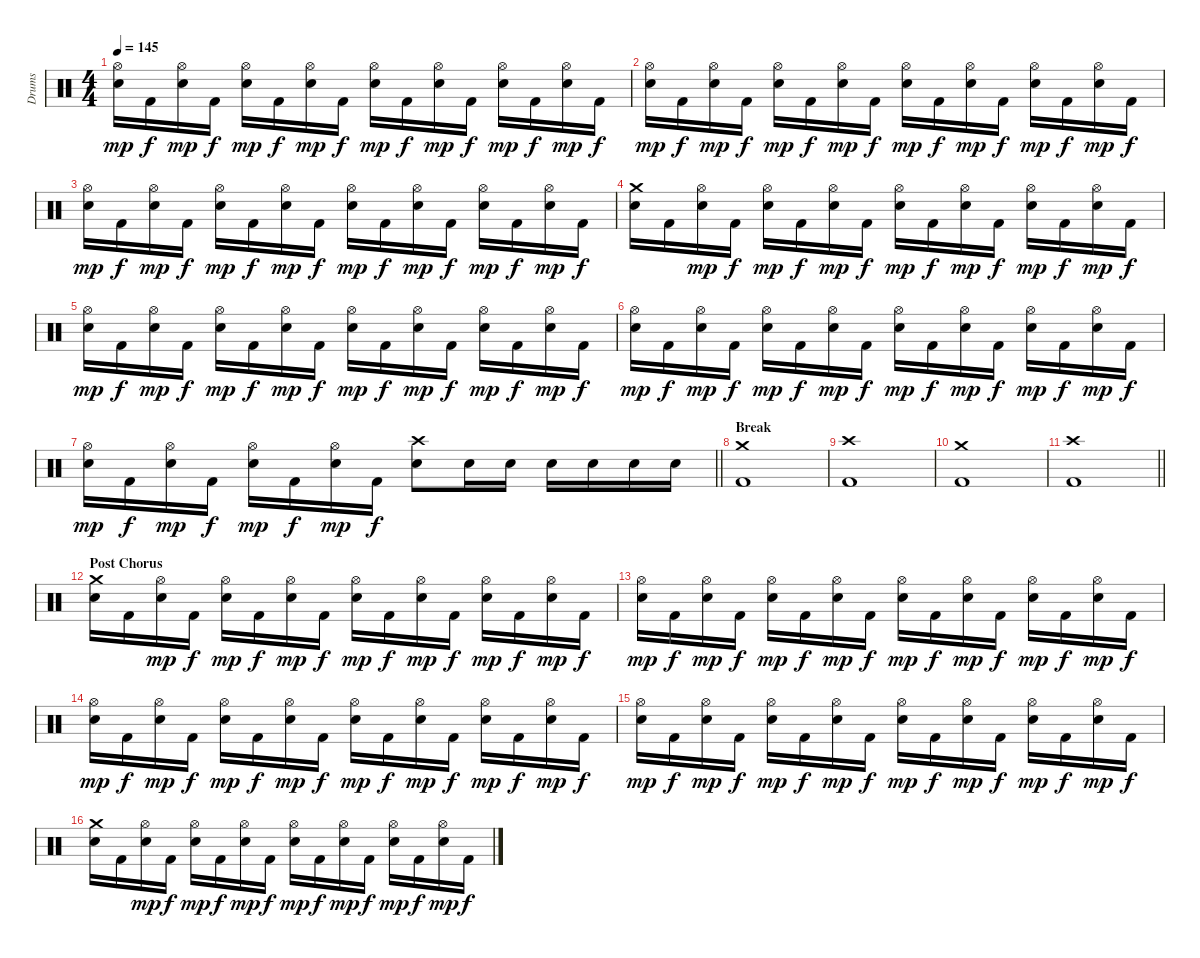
\track ("Drums" "Drums") {instrument percussion}
\staff {score}
\articulation defaults
\ts (4 4)
\tempo 145
\clef neutral
\ks c
("Hi-Hat (open)" "Snare (hit) 2").16{dy mp} "Kick (hit) 2".16{dy f} ("Hi-Hat (open)" "Snare (hit) 2").16{dy mp} "Kick (hit) 2".16{dy f} ("Hi-Hat (open)" "Snare (hit) 2").16{dy mp} "Kick (hit) 2".16{dy f} ("Hi-Hat (open)" "Snare (hit) 2").16{dy mp} "Kick (hit) 2".16{dy f} ("Hi-Hat (open)" "Snare (hit) 2").16{dy mp} "Kick (hit) 2".16{dy f} ("Hi-Hat (open)" "Snare (hit) 2").16{dy mp} "Kick (hit) 2".16{dy f} ("Hi-Hat (open)" "Snare (hit) 2").16{dy mp} "Kick (hit) 2".16{dy f} ("Hi-Hat (open)" "Snare (hit) 2").16{dy mp} "Kick (hit) 2".16{dy f} |
("Hi-Hat (open)" "Snare (hit) 2").16{dy mp} "Kick (hit) 2".16{dy f} ("Hi-Hat (open)" "Snare (hit) 2").16{dy mp} "Kick (hit) 2".16{dy f} ("Hi-Hat (open)" "Snare (hit) 2").16{dy mp} "Kick (hit) 2".16{dy f} ("Hi-Hat (open)" "Snare (hit) 2").16{dy mp} "Kick (hit) 2".16{dy f} ("Hi-Hat (open)" "Snare (hit) 2").16{dy mp} "Kick (hit) 2".16{dy f} ("Hi-Hat (open)" "Snare (hit) 2").16{dy mp} "Kick (hit) 2".16{dy f} ("Hi-Hat (open)" "Snare (hit) 2").16{dy mp} "Kick (hit) 2".16{dy f} ("Hi-Hat (open)" "Snare (hit) 2").16{dy mp} "Kick (hit) 2".16{dy f} |
("Hi-Hat (open)" "Snare (hit) 2").16{dy mp} "Kick (hit) 2".16{dy f} ("Hi-Hat (open)" "Snare (hit) 2").16{dy mp} "Kick (hit) 2".16{dy f} ("Hi-Hat (open)" "Snare (hit) 2").16{dy mp} "Kick (hit) 2".16{dy f} ("Hi-Hat (open)" "Snare (hit) 2").16{dy mp} "Kick (hit) 2".16{dy f} ("Hi-Hat (open)" "Snare (hit) 2").16{dy mp} "Kick (hit) 2".16{dy f} ("Hi-Hat (open)" "Snare (hit) 2").16{dy mp} "Kick (hit) 2".16{dy f} ("Hi-Hat (open)" "Snare (hit) 2").16{dy mp} "Kick (hit) 2".16{dy f} ("Hi-Hat (open)" "Snare (hit) 2").16{dy mp} "Kick (hit) 2".16{dy f} |
("Crash medium (hit)" "Snare (hit) 2").16 "Kick (hit) 2".16 ("Hi-Hat (open)" "Snare (hit) 2").16{dy mp} "Kick (hit) 2".16{dy f} ("Hi-Hat (open)" "Snare (hit) 2").16{dy mp} "Kick (hit) 2".16{dy f} ("Hi-Hat (open)" "Snare (hit) 2").16{dy mp} "Kick (hit) 2".16{dy f} ("Hi-Hat (open)" "Snare (hit) 2").16{dy mp} "Kick (hit) 2".16{dy f} ("Hi-Hat (open)" "Snare (hit) 2").16{dy mp} "Kick (hit) 2".16{dy f} ("Hi-Hat (open)" "Snare (hit) 2").16{dy mp} "Kick (hit) 2".16{dy f} ("Hi-Hat (open)" "Snare (hit) 2").16{dy mp} "Kick (hit) 2".16{dy f} |
("Hi-Hat (open)" "Snare (hit) 2").16{dy mp} "Kick (hit) 2".16{dy f} ("Hi-Hat (open)" "Snare (hit) 2").16{dy mp} "Kick (hit) 2".16{dy f} ("Hi-Hat (open)" "Snare (hit) 2").16{dy mp} "Kick (hit) 2".16{dy f} ("Hi-Hat (open)" "Snare (hit) 2").16{dy mp} "Kick (hit) 2".16{dy f} ("Hi-Hat (open)" "Snare (hit) 2").16{dy mp} "Kick (hit) 2".16{dy f} ("Hi-Hat (open)" "Snare (hit) 2").16{dy mp} "Kick (hit) 2".16{dy f} ("Hi-Hat (open)" "Snare (hit) 2").16{dy mp} "Kick (hit) 2".16{dy f} ("Hi-Hat (open)" "Snare (hit) 2").16{dy mp} "Kick (hit) 2".16{dy f} |
("Hi-Hat (open)" "Snare (hit) 2").16{dy mp} "Kick (hit) 2".16{dy f} ("Hi-Hat (open)" "Snare (hit) 2").16{dy mp} "Kick (hit) 2".16{dy f} ("Hi-Hat (open)" "Snare (hit) 2").16{dy mp} "Kick (hit) 2".16{dy f} ("Hi-Hat (open)" "Snare (hit) 2").16{dy mp} "Kick (hit) 2".16{dy f} ("Hi-Hat (open)" "Snare (hit) 2").16{dy mp} "Kick (hit) 2".16{dy f} ("Hi-Hat (open)" "Snare (hit) 2").16{dy mp} "Kick (hit) 2".16{dy f} ("Hi-Hat (open)" "Snare (hit) 2").16{dy mp} "Kick (hit) 2".16{dy f} ("Hi-Hat (open)" "Snare (hit) 2").16{dy mp} "Kick (hit) 2".16{dy f} |
\barLineRight lightlight
("Hi-Hat (open)" "Snare (hit) 2").16{dy mp} "Kick (hit) 2".16{dy f} ("Hi-Hat (open)" "Snare (hit) 2").16{dy mp} "Kick (hit) 2".16{dy f} ("Hi-Hat (open)" "Snare (hit) 2").16{dy mp} "Kick (hit) 2".16{dy f} ("Hi-Hat (open)" "Snare (hit) 2").16{dy mp} "Kick (hit) 2".16{dy f} ("Crash high (hit)" "Snare (hit) 2").8 "Snare (hit) 2".16 "Snare (hit) 2".16 "Snare (hit) 2".16 "Snare (hit) 2".16 "Snare (hit) 2".16 "Snare (hit) 2".16 |
\section ("" "Break")
("Crash medium (hit)" "Kick (hit) 2").1 |
("Crash high (hit)" "Kick (hit) 2").1 |
("Crash medium (hit)" "Kick (hit) 2").1 |
\barLineRight lightlight
("Crash high (hit)" "Kick (hit) 2").1 |
\section ("" "Post Chorus")
("Crash medium (hit)" "Snare (hit) 2").16 "Kick (hit) 2".16 ("Hi-Hat (open)" "Snare (hit) 2").16{dy mp} "Kick (hit) 2".16{dy f} ("Hi-Hat (open)" "Snare (hit) 2").16{dy mp} "Kick (hit) 2".16{dy f} ("Hi-Hat (open)" "Snare (hit) 2").16{dy mp} "Kick (hit) 2".16{dy f} ("Hi-Hat (open)" "Snare (hit) 2").16{dy mp} "Kick (hit) 2".16{dy f} ("Hi-Hat (open)" "Snare (hit) 2").16{dy mp} "Kick (hit) 2".16{dy f} ("Hi-Hat (open)" "Snare (hit) 2").16{dy mp} "Kick (hit) 2".16{dy f} ("Hi-Hat (open)" "Snare (hit) 2").16{dy mp} "Kick (hit) 2".16{dy f} |
("Hi-Hat (open)" "Snare (hit) 2").16{dy mp} "Kick (hit) 2".16{dy f} ("Hi-Hat (open)" "Snare (hit) 2").16{dy mp} "Kick (hit) 2".16{dy f} ("Hi-Hat (open)" "Snare (hit) 2").16{dy mp} "Kick (hit) 2".16{dy f} ("Hi-Hat (open)" "Snare (hit) 2").16{dy mp} "Kick (hit) 2".16{dy f} ("Hi-Hat (open)" "Snare (hit) 2").16{dy mp} "Kick (hit) 2".16{dy f} ("Hi-Hat (open)" "Snare (hit) 2").16{dy mp} "Kick (hit) 2".16{dy f} ("Hi-Hat (open)" "Snare (hit) 2").16{dy mp} "Kick (hit) 2".16{dy f} ("Hi-Hat (open)" "Snare (hit) 2").16{dy mp} "Kick (hit) 2".16{dy f} |
("Hi-Hat (open)" "Snare (hit) 2").16{dy mp} "Kick (hit) 2".16{dy f} ("Hi-Hat (open)" "Snare (hit) 2").16{dy mp} "Kick (hit) 2".16{dy f} ("Hi-Hat (open)" "Snare (hit) 2").16{dy mp} "Kick (hit) 2".16{dy f} ("Hi-Hat (open)" "Snare (hit) 2").16{dy mp} "Kick (hit) 2".16{dy f} ("Hi-Hat (open)" "Snare (hit) 2").16{dy mp} "Kick (hit) 2".16{dy f} ("Hi-Hat (open)" "Snare (hit) 2").16{dy mp} "Kick (hit) 2".16{dy f} ("Hi-Hat (open)" "Snare (hit) 2").16{dy mp} "Kick (hit) 2".16{dy f} ("Hi-Hat (open)" "Snare (hit) 2").16{dy mp} "Kick (hit) 2".16{dy f} |
("Hi-Hat (open)" "Snare (hit) 2").16{dy mp} "Kick (hit) 2".16{dy f} ("Hi-Hat (open)" "Snare (hit) 2").16{dy mp} "Kick (hit) 2".16{dy f} ("Hi-Hat (open)" "Snare (hit) 2").16{dy mp} "Kick (hit) 2".16{dy f} ("Hi-Hat (open)" "Snare (hit) 2").16{dy mp} "Kick (hit) 2".16{dy f} ("Hi-Hat (open)" "Snare (hit) 2").16{dy mp} "Kick (hit) 2".16{dy f} ("Hi-Hat (open)" "Snare (hit) 2").16{dy mp} "Kick (hit) 2".16{dy f} ("Hi-Hat (open)" "Snare (hit) 2").16{dy mp} "Kick (hit) 2".16{dy f} ("Hi-Hat (open)" "Snare (hit) 2").16{dy mp} "Kick (hit) 2".16{dy f} |
("Crash medium (hit)" "Snare (hit) 2").16 "Kick (hit) 2".16 ("Hi-Hat (open)" "Snare (hit) 2").16{dy mp} "Kick (hit) 2".16{dy f} ("Hi-Hat (open)" "Snare (hit) 2").16{dy mp} "Kick (hit) 2".16{dy f} ("Hi-Hat (open)" "Snare (hit) 2").16{dy mp} "Kick (hit) 2".16{dy f} ("Hi-Hat (open)" "Snare (hit) 2").16{dy mp} "Kick (hit) 2".16{dy f} ("Hi-Hat (open)" "Snare (hit) 2").16{dy mp} "Kick (hit) 2".16{dy f} ("Hi-Hat (open)" "Snare (hit) 2").16{dy mp} "Kick (hit) 2".16{dy f} ("Hi-Hat (open)" "Snare (hit) 2").16{dy mp} "Kick (hit) 2".16{dy f}
